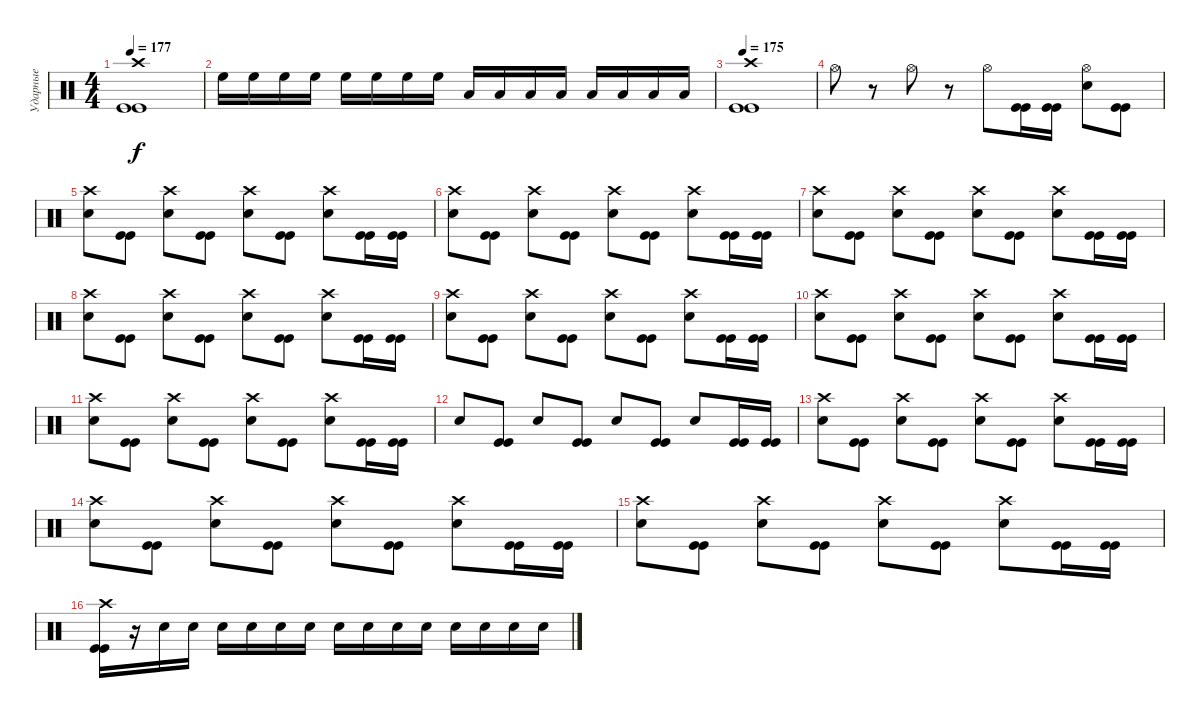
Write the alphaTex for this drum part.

\track ("Ударные" "Ударные") {instrument percussion}
\staff {score}
\articulation defaults
\ts (4 4)
\tempo 177
\clef neutral
\ks c
("Crash high (hit)" "Kick (hit)" "Kick (hit)").1{dy f} |
"High Floor Tom (hit)".16 "High Floor Tom (hit)".16 "High Floor Tom (hit)".16 "High Floor Tom (hit)".16 "High Floor Tom (hit)".16 "High Floor Tom (hit)".16 "High Floor Tom (hit)".16 "High Floor Tom (hit)".16 "Low Tom (hit)".16 "Low Tom (hit)".16 "Low Tom (hit)".16 "Low Tom (hit)".16 "Low Tom (hit)".16 "Low Tom (hit)".16 "Low Tom (hit)".16 "Low Tom (hit)".16 |
\tempo 175
("Crash high (hit)" "Kick (hit)" "Kick (hit)").1 |
"Hi-Hat (open)".8 r.8 "Hi-Hat (open)".8 r.8 "Hi-Hat (open)".8 ("Kick (hit)" "Kick (hit)").16 ("Kick (hit)" "Kick (hit)").16 ("Hi-Hat (open)" "Snare (hit) 2").8 ("Kick (hit)" "Kick (hit)").8 |
("Crash high (hit)" "Snare (hit) 2").8 ("Kick (hit)" "Kick (hit)").8 ("Crash high (hit)" "Snare (hit) 2").8 ("Kick (hit)" "Kick (hit)").8 ("Crash high (hit)" "Snare (hit) 2").8 ("Kick (hit)" "Kick (hit)").8 ("Crash high (hit)" "Snare (hit) 2").8 ("Kick (hit)" "Kick (hit)").16 ("Kick (hit)" "Kick (hit)").16 |
("Crash high (hit)" "Snare (hit) 2").8 ("Kick (hit)" "Kick (hit)").8 ("Crash high (hit)" "Snare (hit) 2").8 ("Kick (hit)" "Kick (hit)").8 ("Crash high (hit)" "Snare (hit) 2").8 ("Kick (hit)" "Kick (hit)").8 ("Crash high (hit)" "Snare (hit) 2").8 ("Kick (hit)" "Kick (hit)").16 ("Kick (hit)" "Kick (hit)").16 |
("Crash high (hit)" "Snare (hit) 2").8 ("Kick (hit)" "Kick (hit)").8 ("Crash high (hit)" "Snare (hit) 2").8 ("Kick (hit)" "Kick (hit)").8 ("Crash high (hit)" "Snare (hit) 2").8 ("Kick (hit)" "Kick (hit)").8 ("Crash high (hit)" "Snare (hit) 2").8 ("Kick (hit)" "Kick (hit)").16 ("Kick (hit)" "Kick (hit)").16 |
("Crash high (hit)" "Snare (hit) 2").8 ("Kick (hit)" "Kick (hit)").8 ("Crash high (hit)" "Snare (hit) 2").8 ("Kick (hit)" "Kick (hit)").8 ("Crash high (hit)" "Snare (hit) 2").8 ("Kick (hit)" "Kick (hit)").8 ("Crash high (hit)" "Snare (hit) 2").8 ("Kick (hit)" "Kick (hit)").16 ("Kick (hit)" "Kick (hit)").16 |
("Crash high (hit)" "Snare (hit) 2").8 ("Kick (hit)" "Kick (hit)").8 ("Crash high (hit)" "Snare (hit) 2").8 ("Kick (hit)" "Kick (hit)").8 ("Crash high (hit)" "Snare (hit) 2").8 ("Kick (hit)" "Kick (hit)").8 ("Crash high (hit)" "Snare (hit) 2").8 ("Kick (hit)" "Kick (hit)").16 ("Kick (hit)" "Kick (hit)").16 |
("Crash high (hit)" "Snare (hit) 2").8 ("Kick (hit)" "Kick (hit)").8 ("Crash high (hit)" "Snare (hit) 2").8 ("Kick (hit)" "Kick (hit)").8 ("Crash high (hit)" "Snare (hit) 2").8 ("Kick (hit)" "Kick (hit)").8 ("Crash high (hit)" "Snare (hit) 2").8 ("Kick (hit)" "Kick (hit)").16 ("Kick (hit)" "Kick (hit)").16 |
("Crash high (hit)" "Snare (hit) 2").8 ("Kick (hit)" "Kick (hit)").8 ("Crash high (hit)" "Snare (hit) 2").8 ("Kick (hit)" "Kick (hit)").8 ("Crash high (hit)" "Snare (hit) 2").8 ("Kick (hit)" "Kick (hit)").8 ("Crash high (hit)" "Snare (hit) 2").8 ("Kick (hit)" "Kick (hit)").16 ("Kick (hit)" "Kick (hit)").16 |
"Snare (hit) 2".8 ("Kick (hit)" "Kick (hit)").8 "Snare (hit) 2".8 ("Kick (hit)" "Kick (hit)").8 "Snare (hit) 2".8 ("Kick (hit)" "Kick (hit)").8 "Snare (hit) 2".8 ("Kick (hit)" "Kick (hit)").16 ("Kick (hit)" "Kick (hit)").16 |
("Crash high (hit)" "Snare (hit) 2").8 ("Kick (hit)" "Kick (hit)").8 ("Crash high (hit)" "Snare (hit) 2").8 ("Kick (hit)" "Kick (hit)").8 ("Crash high (hit)" "Snare (hit) 2").8 ("Kick (hit)" "Kick (hit)").8 ("Crash high (hit)" "Snare (hit) 2").8 ("Kick (hit)" "Kick (hit)").16 ("Kick (hit)" "Kick (hit)").16 |
("Crash high (hit)" "Snare (hit) 2").8 ("Kick (hit)" "Kick (hit)").8 ("Crash high (hit)" "Snare (hit) 2").8 ("Kick (hit)" "Kick (hit)").8 ("Crash high (hit)" "Snare (hit) 2").8 ("Kick (hit)" "Kick (hit)").8 ("Crash high (hit)" "Snare (hit) 2").8 ("Kick (hit)" "Kick (hit)").16 ("Kick (hit)" "Kick (hit)").16 |
("Crash high (hit)" "Snare (hit) 2").8 ("Kick (hit)" "Kick (hit)").8 ("Crash high (hit)" "Snare (hit) 2").8 ("Kick (hit)" "Kick (hit)").8 ("Crash high (hit)" "Snare (hit) 2").8 ("Kick (hit)" "Kick (hit)").8 ("Crash high (hit)" "Snare (hit) 2").8 ("Kick (hit)" "Kick (hit)").16 ("Kick (hit)" "Kick (hit)").16 |
("Crash high (hit)" "Kick (hit)" "Kick (hit)").16 r.16 "Snare (hit) 2".16 "Snare (hit) 2".16 "Snare (hit) 2".16 "Snare (hit) 2".16 "Snare (hit) 2".16 "Snare (hit) 2".16 "Snare (hit) 2".16 "Snare (hit) 2".16 "Snare (hit) 2".16 "Snare (hit) 2".16 "Snare (hit) 2".16 "Snare (hit) 2".16 "Snare (hit) 2".16 "Snare (hit) 2".16
